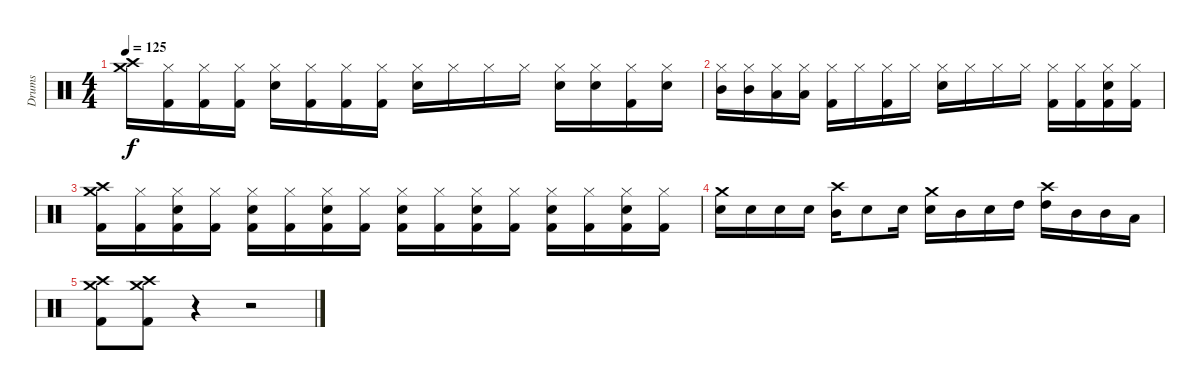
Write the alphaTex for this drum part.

\track ("Drums" "Drums") {instrument percussion}
\staff {score}
\articulation defaults
\ts (4 4)
\tempo 125
\clef neutral
\ks c
("Crash medium (hit)" "Crash high (hit)").16{dy f} ("Hi-Hat (closed)" "Kick (hit) 2").16 ("Hi-Hat (closed)" "Kick (hit) 2").16 ("Hi-Hat (closed)" "Kick (hit) 2").16 ("Hi-Hat (closed)" "Snare (hit) 2").16 ("Hi-Hat (closed)" "Kick (hit) 2").16 ("Hi-Hat (closed)" "Kick (hit) 2").16 ("Hi-Hat (closed)" "Kick (hit) 2").16 ("Hi-Hat (closed)" "Snare (hit) 2").16 "Hi-Hat (closed)".16 "Hi-Hat (closed)".16 "Hi-Hat (closed)".16 ("Hi-Hat (closed)" "Snare (hit) 2").16 ("Hi-Hat (closed)" "Snare (hit) 2").16 ("Hi-Hat (closed)" "Kick (hit) 2").16 ("Hi-Hat (closed)" "Snare (hit) 2").16 |
("Hi-Hat (closed)" "Mid Tom (hit)").16 ("Hi-Hat (closed)" "Mid Tom (hit)").16 ("Hi-Hat (closed)" "Low Tom (hit)").16 ("Hi-Hat (closed)" "Low Tom (hit)").16 ("Hi-Hat (closed)" "Kick (hit) 2").16 "Hi-Hat (closed)".16 ("Hi-Hat (closed)" "Kick (hit) 2").16 "Hi-Hat (closed)".16 ("Hi-Hat (closed)" "Snare (hit) 2").16 "Hi-Hat (closed)".16 "Hi-Hat (closed)".16 "Hi-Hat (closed)".16 ("Hi-Hat (closed)" "Kick (hit) 2").16 ("Hi-Hat (closed)" "Kick (hit) 2").16 ("Hi-Hat (closed)" "Snare (hit) 2" "Kick (hit) 2").16 ("Hi-Hat (closed)" "Kick (hit) 2").16 |
("Crash medium (hit)" "Crash high (hit)" "Kick (hit) 2").16 ("Hi-Hat (closed)" "Kick (hit) 2").16 ("Hi-Hat (closed)" "Snare (hit) 2" "Kick (hit) 2").16 ("Hi-Hat (closed)" "Kick (hit) 2").16 ("Hi-Hat (closed)" "Snare (hit) 2" "Kick (hit) 2").16 ("Hi-Hat (closed)" "Kick (hit) 2").16 ("Hi-Hat (closed)" "Snare (hit) 2" "Kick (hit) 2").16 ("Hi-Hat (closed)" "Kick (hit) 2").16 ("Hi-Hat (closed)" "Snare (hit) 2" "Kick (hit) 2").16 ("Hi-Hat (closed)" "Kick (hit) 2").16 ("Hi-Hat (closed)" "Snare (hit) 2" "Kick (hit) 2").16 ("Hi-Hat (closed)" "Kick (hit) 2").16 ("Hi-Hat (closed)" "Snare (hit) 2" "Kick (hit) 2").16 ("Hi-Hat (closed)" "Kick (hit) 2").16 ("Hi-Hat (closed)" "Snare (hit) 2" "Kick (hit) 2").16 ("Hi-Hat (closed)" "Kick (hit) 2").16 |
("Crash medium (hit)" "Snare (hit) 2").16 "Snare (hit) 2".16 "Snare (hit) 2".16 "Snare (hit) 2".16 ("Crash high (hit)" "Mid Tom (hit)").16 "Snare (hit) 2".8 "Snare (hit) 2".16 ("Crash medium (hit)" "Snare (hit) 2").16 "Mid Tom (hit)".16 "Snare (hit) 2".16 "High Tom (hit)".16 ("Crash high (hit)" "High Tom (hit)").16 "Mid Tom (hit)".16 "Mid Tom (hit)".16 "Low Tom (hit)".16 |
("Crash medium (hit)" "Crash high (hit)" "Kick (hit) 2").8 ("Crash medium (hit)" "Crash high (hit)" "Kick (hit) 2").8 r.4 r.2
